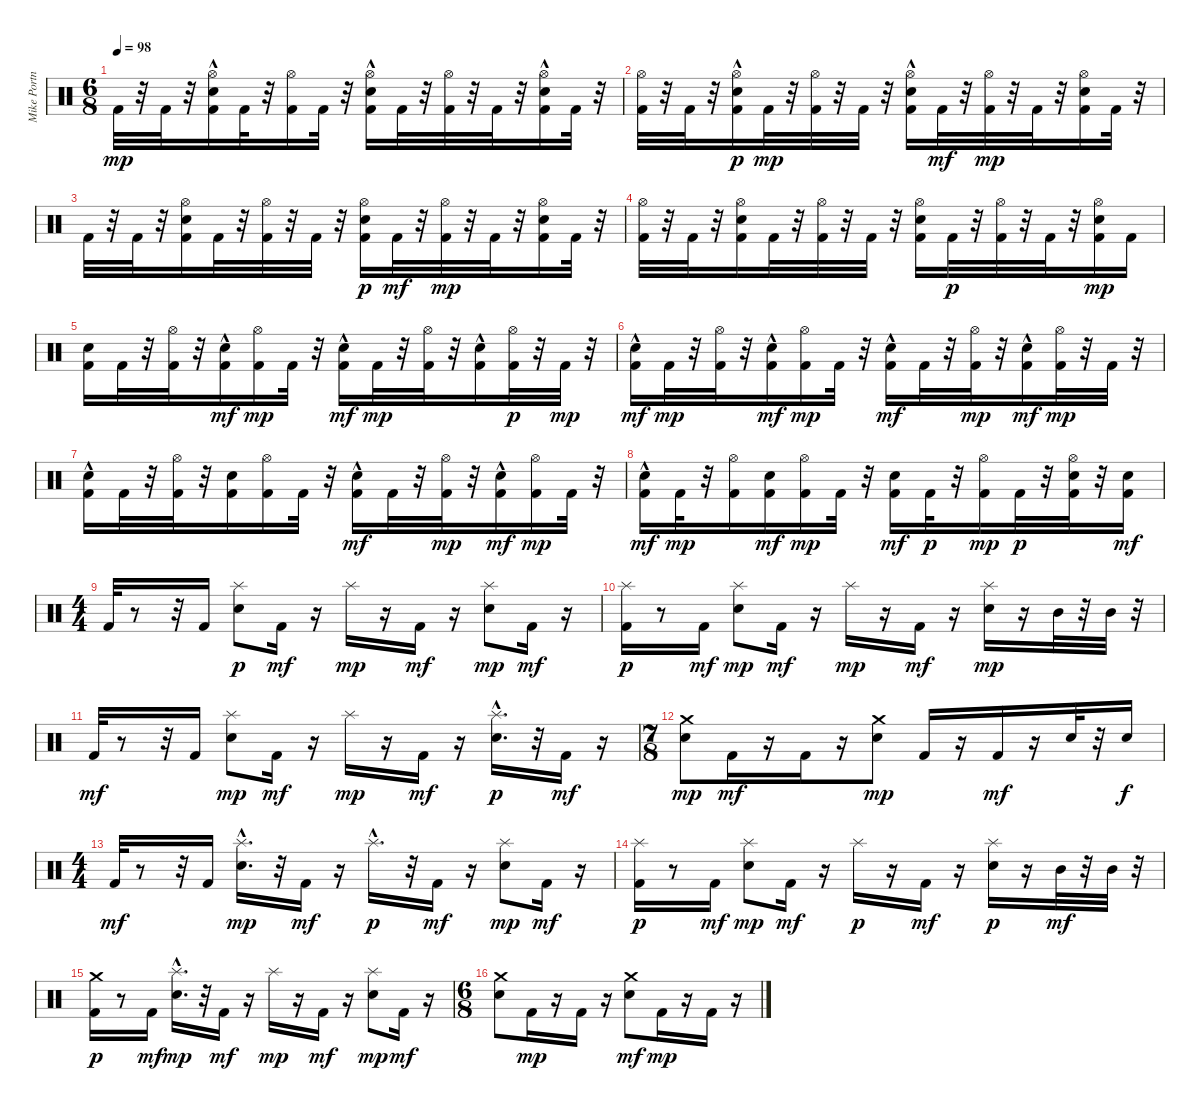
\track ("Mike Portnoy" "Mike Portn") {instrument percussion}
\staff {score}
\articulation defaults
\ts (6 8)
\tempo 98
\clef neutral
\ks c "Kick (hit) 2".32{dy mp}
r.32 "Kick (hit) 2".32 r.32 ("Kick (hit) 2" "Electric Snare (hit)"{hac} "Hi-Hat (open)").16 "Kick (hit) 2".32 r.32 ("Kick (hit) 2" "Hi-Hat (open)").16 "Kick (hit) 2".32 r.32 ("Kick (hit) 2" "Electric Snare (hit)"{hac} "Hi-Hat (open)").16 "Kick (hit) 2".32 r.32 ("Kick (hit) 2" "Hi-Hat (open)").32 r.32 "Kick (hit) 2".32 r.32 ("Kick (hit) 2" "Electric Snare (hit)"{hac} "Hi-Hat (open)").16 "Kick (hit) 2".32 r.32 |
("Kick (hit) 2" "Hi-Hat (open)").32 r.32 "Kick (hit) 2".32 r.32 ("Kick (hit) 2" "Electric Snare (hit)"{hac} "Hi-Hat (open)").16{dy p} "Kick (hit) 2".32{dy mp} r.32 ("Kick (hit) 2" "Hi-Hat (open)").32 r.32 "Kick (hit) 2".32 r.32 ("Kick (hit) 2" "Electric Snare (hit)"{hac} "Hi-Hat (open)").16 "Kick (hit) 2".32{dy mf} r.32 ("Kick (hit) 2" "Hi-Hat (open)").32{dy mp} r.32 "Kick (hit) 2".32 r.32 ("Kick (hit) 2" "Electric Snare (hit)" "Hi-Hat (open)").16 "Kick (hit) 2".32 r.32 |
"Kick (hit) 2".32 r.32 "Kick (hit) 2".32 r.32 ("Kick (hit) 2" "Electric Snare (hit)" "Hi-Hat (open)").16 "Kick (hit) 2".32 r.32 ("Kick (hit) 2" "Hi-Hat (open)").32 r.32 "Kick (hit) 2".32 r.32 ("Kick (hit) 2" "Electric Snare (hit)" "Hi-Hat (open)").16{dy p} "Kick (hit) 2".32{dy mf} r.32 ("Kick (hit) 2" "Hi-Hat (open)").32{dy mp} r.32 "Kick (hit) 2".32 r.32 ("Kick (hit) 2" "Electric Snare (hit)" "Hi-Hat (open)").16 "Kick (hit) 2".32 r.32 |
("Kick (hit) 2" "Hi-Hat (open)").32 r.32 "Kick (hit) 2".32 r.32 ("Kick (hit) 2" "Electric Snare (hit)" "Hi-Hat (open)").16 "Kick (hit) 2".32 r.32 ("Kick (hit) 2" "Hi-Hat (open)").32 r.32 "Kick (hit) 2".32 r.32 ("Kick (hit) 2" "Electric Snare (hit)" "Hi-Hat (open)").16 "Kick (hit) 2".32{dy p} r.32 ("Kick (hit) 2" "Hi-Hat (open)").32 r.32 "Kick (hit) 2".32 r.32 ("Kick (hit) 2" "Electric Snare (hit)" "Hi-Hat (open)").16{dy mp} "Kick (hit) 2".16 |
("Kick (hit) 2" "Electric Snare (hit)").16 "Kick (hit) 2".32 r.32 ("Kick (hit) 2" "Hi-Hat (open)").32 r.32 ("Kick (hit) 2" "Electric Snare (hit)"{hac}).16{dy mf} ("Kick (hit) 2" "Hi-Hat (open)").16{dy mp} "Kick (hit) 2".32 r.32 ("Kick (hit) 2" "Electric Snare (hit)"{hac}).16{dy mf} "Kick (hit) 2".32{dy mp} r.32 ("Kick (hit) 2" "Hi-Hat (open)").32 r.32 ("Kick (hit) 2" "Electric Snare (hit)"{hac}).16 ("Kick (hit) 2" "Hi-Hat (open)").32{dy p} r.32 "Kick (hit) 2".32{dy mp} r.32 |
("Kick (hit) 2" "Electric Snare (hit)"{hac}).16{dy mf} "Kick (hit) 2".32{dy mp} r.32 ("Kick (hit) 2" "Hi-Hat (open)").32 r.32 ("Kick (hit) 2" "Electric Snare (hit)"{hac}).16{dy mf} ("Kick (hit) 2" "Hi-Hat (open)").16{dy mp} "Kick (hit) 2".32 r.32 ("Kick (hit) 2" "Electric Snare (hit)"{hac}).16{dy mf} "Kick (hit) 2".32 r.32 ("Kick (hit) 2" "Hi-Hat (open)").32{dy mp} r.32 ("Kick (hit) 2" "Electric Snare (hit)"{hac}).16{dy mf} ("Kick (hit) 2" "Hi-Hat (open)").32{dy mp} r.32 "Kick (hit) 2".32 r.32 |
("Kick (hit) 2" "Electric Snare (hit)"{hac}).16 "Kick (hit) 2".32 r.32 ("Kick (hit) 2" "Hi-Hat (open)").32 r.32 ("Kick (hit) 2" "Electric Snare (hit)").16 ("Kick (hit) 2" "Hi-Hat (open)").16 "Kick (hit) 2".32 r.32 ("Kick (hit) 2" "Electric Snare (hit)"{hac}).16{dy mf} "Kick (hit) 2".32 r.32 ("Kick (hit) 2" "Hi-Hat (open)").32{dy mp} r.32 ("Kick (hit) 2" "Electric Snare (hit)"{hac}).16{dy mf} ("Kick (hit) 2" "Hi-Hat (open)").16{dy mp} "Kick (hit) 2".32 r.32 |
("Kick (hit) 2" "Electric Snare (hit)"{hac}).16{dy mf} "Kick (hit) 2".32{dy mp} r.32 ("Kick (hit) 2" "Hi-Hat (open)").16 ("Kick (hit) 2" "Electric Snare (hit)").16{dy mf} ("Kick (hit) 2" "Hi-Hat (open)").16{dy mp} "Kick (hit) 2".32 r.32 ("Kick (hit) 2" "Electric Snare (hit)").16{dy mf} "Kick (hit) 2".32{dy p} r.32 ("Kick (hit) 2" "Hi-Hat (open)").16{dy mp} "Kick (hit) 2".32{dy p} r.32 ("Kick (hit) 2" "Electric Snare (hit)" "Hi-Hat (open)").32 r.32 ("Kick (hit) 2" "Electric Snare (hit)").16{dy mf} |
\ts (4 4)
"Kick (hit) 2".32 r.8 r.32 "Kick (hit) 2".16 ("Electric Snare (hit)" "Splash (hit)").8{dy p} "Kick (hit) 2".16{dy mf} r.16 "Splash (hit)".16{dy mp} r.16 "Kick (hit) 2".16{dy mf} r.16 ("Electric Snare (hit)" "Splash (hit)").8{dy mp} "Kick (hit) 2".16{dy mf} r.16 |
("Kick (hit) 2" "Splash (hit)").16{dy p} r.8 "Kick (hit) 2".16{dy mf} ("Electric Snare (hit)" "Splash (hit)").8{dy mp} "Kick (hit) 2".16{dy mf} r.16 "Splash (hit)".16{dy mp} r.16 "Kick (hit) 2".16{dy mf} r.16 ("Electric Snare (hit)" "Splash (hit)").16{dy mp} r.16 "Mid Tom (hit)".32 r.32 "Mid Tom (hit)".32 r.32 |
"Kick (hit) 2".32{dy mf} r.8 r.32 "Kick (hit) 2".16 ("Electric Snare (hit)" "Splash (hit)").8{dy mp} "Kick (hit) 2".16{dy mf} r.16 "Splash (hit)".16{dy mp} r.16 "Kick (hit) 2".16{dy mf} r.16 ("Electric Snare (hit)"{hac} "Splash (hit)").16{d dy p} r.32 "Kick (hit) 2".16{dy mf} r.16 |
\ts (7 8)
("Electric Snare (hit)" "Crash medium (hit)").8{dy mp} "Kick (hit) 2".16{dy mf} r.16 "Kick (hit) 2".16 r.16 ("Electric Snare (hit)" "Crash medium (hit)").8{dy mp} "Kick (hit) 2".16 r.16 "Kick (hit) 2".16{dy mf} r.16 "Electric Snare (hit)".32 r.32 "Electric Snare (hit)".16{dy f} |
\ts (4 4)
"Kick (hit) 2".32{dy mf} r.8 r.32 "Kick (hit) 2".16 ("Electric Snare (hit)"{hac} "Splash (hit)").16{d dy mp} r.32 "Kick (hit) 2".16{dy mf} r.16 "Splash (hit)"{hac}.16{d dy p} r.32 "Kick (hit) 2".16{dy mf} r.16 ("Electric Snare (hit)" "Splash (hit)").8{dy mp} "Kick (hit) 2".16{dy mf} r.16 |
("Kick (hit) 2" "Splash (hit)").16{dy p} r.8 "Kick (hit) 2".16{dy mf} ("Electric Snare (hit)" "Splash (hit)").8{dy mp} "Kick (hit) 2".16{dy mf} r.16 "Splash (hit)".16{dy p} r.16 "Kick (hit) 2".16{dy mf} r.16 ("Electric Snare (hit)" "Splash (hit)").16{dy p} r.16 "Mid Tom (hit)".32{dy mf} r.32 "Mid Tom (hit)".32 r.32 |
("Kick (hit) 2" "Crash medium (hit)").16{dy p} r.8 "Kick (hit) 2".16{dy mf} ("Electric Snare (hit)"{hac} "Splash (hit)").16{d dy mp} r.32 "Kick (hit) 2".16{dy mf} r.16 "Splash (hit)".16{dy mp} r.16 "Kick (hit) 2".16{dy mf} r.16 ("Electric Snare (hit)" "Splash (hit)").8{dy mp} "Kick (hit) 2".16{dy mf} r.16 |
\ts (6 8)
("Electric Snare (hit)" "Crash medium (hit)").8 "Kick (hit) 2".16{dy mp} r.16 "Kick (hit) 2".16 r.16 ("Electric Snare (hit)" "Crash medium (hit)").8{dy mf} "Kick (hit) 2".16{dy mp} r.16 "Kick (hit) 2".16 r.16
